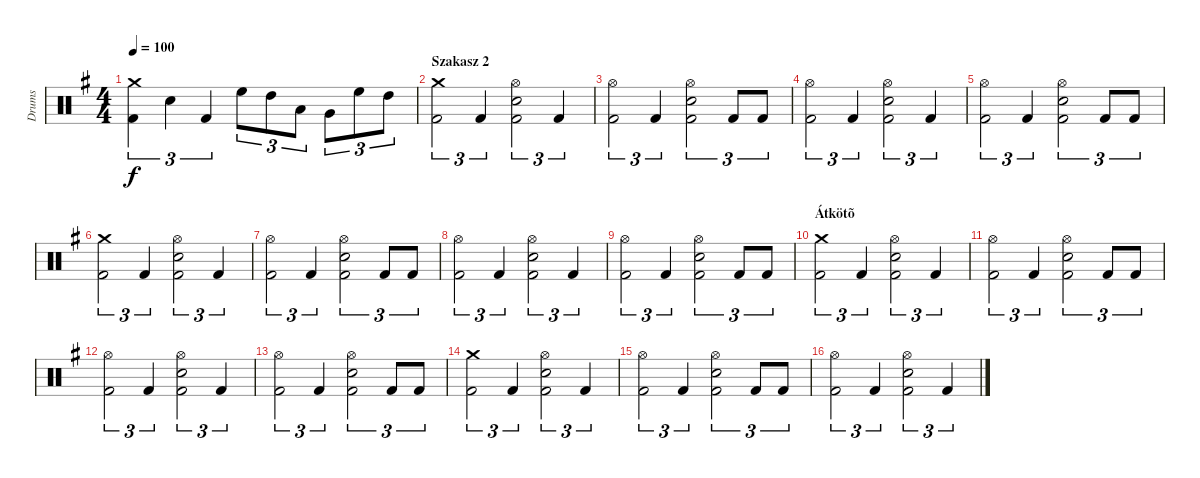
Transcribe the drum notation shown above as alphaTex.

\track ("Drums" "Drums") {instrument percussion}
\staff {score}
\articulation defaults
\ts (4 4)
\tempo 100
\clef neutral
\ks g
("Crash medium (hit)" "Kick (hit) 2").4{tu (3 2) dy f} "Snare (hit) 2".4{tu (3 2)} "Kick (hit) 2".4{tu (3 2)} "High Floor Tom (hit)".8{tu (3 2)} "High Tom (hit)".8{tu (3 2)} "Low Tom (hit)".8{tu (3 2)} "Very Low Tom (hit)".8{tu (3 2)} "High Floor Tom (hit)".8{tu (3 2)} "High Tom (hit)".8{tu (3 2)} |
\section ("" "Szakasz 2")
("Crash medium (hit)" "Kick (hit) 2").2{tu (3 2)} "Kick (hit) 2".4{tu (3 2)} ("Hi-Hat (open)" "Snare (hit) 2" "Kick (hit) 2").2{tu (3 2)} "Kick (hit) 2".4{tu (3 2)} |
("Hi-Hat (open)" "Kick (hit) 2").2{tu (3 2)} "Kick (hit) 2".4{tu (3 2)} ("Hi-Hat (open)" "Snare (hit) 2" "Kick (hit) 2").2{tu (3 2)} "Kick (hit) 2".8{tu (3 2)} "Kick (hit) 2".8{tu (3 2)} |
("Hi-Hat (open)" "Kick (hit) 2").2{tu (3 2)} "Kick (hit) 2".4{tu (3 2)} ("Hi-Hat (open)" "Snare (hit) 2" "Kick (hit) 2").2{tu (3 2)} "Kick (hit) 2".4{tu (3 2)} |
("Hi-Hat (open)" "Kick (hit) 2").2{tu (3 2)} "Kick (hit) 2".4{tu (3 2)} ("Hi-Hat (open)" "Snare (hit) 2" "Kick (hit) 2").2{tu (3 2)} "Kick (hit) 2".8{tu (3 2)} "Kick (hit) 2".8{tu (3 2)} |
("Crash medium (hit)" "Kick (hit) 2").2{tu (3 2)} "Kick (hit) 2".4{tu (3 2)} ("Hi-Hat (open)" "Snare (hit) 2" "Kick (hit) 2").2{tu (3 2)} "Kick (hit) 2".4{tu (3 2)} |
("Hi-Hat (open)" "Kick (hit) 2").2{tu (3 2)} "Kick (hit) 2".4{tu (3 2)} ("Hi-Hat (open)" "Snare (hit) 2" "Kick (hit) 2").2{tu (3 2)} "Kick (hit) 2".8{tu (3 2)} "Kick (hit) 2".8{tu (3 2)} |
("Hi-Hat (open)" "Kick (hit) 2").2{tu (3 2)} "Kick (hit) 2".4{tu (3 2)} ("Hi-Hat (open)" "Snare (hit) 2" "Kick (hit) 2").2{tu (3 2)} "Kick (hit) 2".4{tu (3 2)} |
("Hi-Hat (open)" "Kick (hit) 2").2{tu (3 2)} "Kick (hit) 2".4{tu (3 2)} ("Hi-Hat (open)" "Snare (hit) 2" "Kick (hit) 2").2{tu (3 2)} "Kick (hit) 2".8{tu (3 2)} "Kick (hit) 2".8{tu (3 2)} |
\section ("" "Átkötõ")
("Crash medium (hit)" "Kick (hit) 2").2{tu (3 2)} "Kick (hit) 2".4{tu (3 2)} ("Hi-Hat (open)" "Snare (hit) 2" "Kick (hit) 2").2{tu (3 2)} "Kick (hit) 2".4{tu (3 2)} |
("Hi-Hat (open)" "Kick (hit) 2").2{tu (3 2)} "Kick (hit) 2".4{tu (3 2)} ("Hi-Hat (open)" "Snare (hit) 2" "Kick (hit) 2").2{tu (3 2)} "Kick (hit) 2".8{tu (3 2)} "Kick (hit) 2".8{tu (3 2)} |
("Hi-Hat (open)" "Kick (hit) 2").2{tu (3 2)} "Kick (hit) 2".4{tu (3 2)} ("Hi-Hat (open)" "Snare (hit) 2" "Kick (hit) 2").2{tu (3 2)} "Kick (hit) 2".4{tu (3 2)} |
("Hi-Hat (open)" "Kick (hit) 2").2{tu (3 2)} "Kick (hit) 2".4{tu (3 2)} ("Hi-Hat (open)" "Snare (hit) 2" "Kick (hit) 2").2{tu (3 2)} "Kick (hit) 2".8{tu (3 2)} "Kick (hit) 2".8{tu (3 2)} |
("Crash medium (hit)" "Kick (hit) 2").2{tu (3 2)} "Kick (hit) 2".4{tu (3 2)} ("Hi-Hat (open)" "Snare (hit) 2" "Kick (hit) 2").2{tu (3 2)} "Kick (hit) 2".4{tu (3 2)} |
("Hi-Hat (open)" "Kick (hit) 2").2{tu (3 2)} "Kick (hit) 2".4{tu (3 2)} ("Hi-Hat (open)" "Snare (hit) 2" "Kick (hit) 2").2{tu (3 2)} "Kick (hit) 2".8{tu (3 2)} "Kick (hit) 2".8{tu (3 2)} |
("Hi-Hat (open)" "Kick (hit) 2").2{tu (3 2)} "Kick (hit) 2".4{tu (3 2)} ("Hi-Hat (open)" "Snare (hit) 2" "Kick (hit) 2").2{tu (3 2)} "Kick (hit) 2".4{tu (3 2)}
